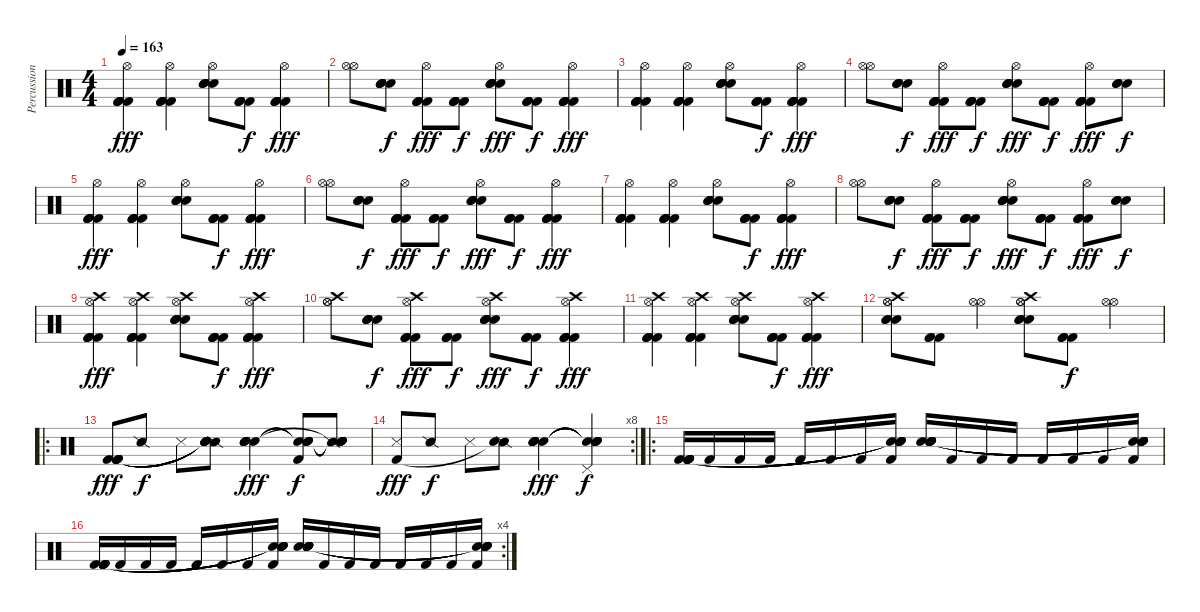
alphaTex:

\track ("Percussion" "Percussion") {instrument percussion}
\staff {score}
\articulation defaults
\ts (4 4)
\tempo 163
\clef neutral
\ks c
("Kick (hit) 2" "Hi-Hat (open)" "Kick (hit) 2" "Kick (hit) 2" "Kick (hit) 2").4{dy fff volume 16} ("Kick (hit) 2" "Hi-Hat (open)" "Kick (hit) 2" "Kick (hit) 2" "Kick (hit) 2").4 ("Electric Snare (hit)" "Hi-Hat (open)" "Electric Snare (hit)" "Electric Snare (hit)" "Electric Snare (hit)").8 ("Kick (hit) 2" "Kick (hit) 2" "Kick (hit) 2" "Kick (hit) 2").8{dy f} ("Kick (hit) 2" "Hi-Hat (open)" "Kick (hit) 2" "Kick (hit) 2" "Kick (hit) 2").4{dy fff} |
("Hi-Hat (open)" "Hi-Hat (open)").8 ("Electric Snare (hit)" "Electric Snare (hit)" "Electric Snare (hit)" "Electric Snare (hit)").8{dy f} ("Kick (hit) 2" "Hi-Hat (open)" "Kick (hit) 2" "Kick (hit) 2" "Kick (hit) 2").8{dy fff} ("Kick (hit) 2" "Kick (hit) 2" "Kick (hit) 2" "Kick (hit) 2").8{dy f} ("Electric Snare (hit)" "Hi-Hat (open)" "Electric Snare (hit)" "Electric Snare (hit)" "Electric Snare (hit)").8{dy fff} ("Kick (hit) 2" "Kick (hit) 2" "Kick (hit) 2" "Kick (hit) 2").8{dy f} ("Kick (hit) 2" "Hi-Hat (open)" "Kick (hit) 2" "Kick (hit) 2" "Kick (hit) 2").4{dy fff} |
("Kick (hit) 2" "Hi-Hat (open)" "Kick (hit) 2" "Kick (hit) 2" "Kick (hit) 2").4 ("Kick (hit) 2" "Hi-Hat (open)" "Kick (hit) 2" "Kick (hit) 2" "Kick (hit) 2").4 ("Electric Snare (hit)" "Hi-Hat (open)" "Electric Snare (hit)" "Electric Snare (hit)" "Electric Snare (hit)").8 ("Kick (hit) 2" "Kick (hit) 2" "Kick (hit) 2" "Kick (hit) 2").8{dy f} ("Kick (hit) 2" "Hi-Hat (open)" "Kick (hit) 2" "Kick (hit) 2" "Kick (hit) 2").4{dy fff} |
("Hi-Hat (open)" "Hi-Hat (open)").8 ("Electric Snare (hit)" "Electric Snare (hit)" "Electric Snare (hit)" "Electric Snare (hit)").8{dy f} ("Kick (hit) 2" "Hi-Hat (open)" "Kick (hit) 2" "Kick (hit) 2" "Kick (hit) 2").8{dy fff} ("Kick (hit) 2" "Kick (hit) 2" "Kick (hit) 2" "Kick (hit) 2").8{dy f} ("Electric Snare (hit)" "Hi-Hat (open)" "Electric Snare (hit)" "Electric Snare (hit)" "Electric Snare (hit)").8{dy fff} ("Kick (hit) 2" "Kick (hit) 2" "Kick (hit) 2" "Kick (hit) 2").8{dy f} ("Kick (hit) 2" "Hi-Hat (open)" "Kick (hit) 2" "Kick (hit) 2" "Kick (hit) 2").8{dy fff} ("Electric Snare (hit)" "Electric Snare (hit)" "Electric Snare (hit)").8{dy f} |
("Kick (hit) 2" "Hi-Hat (open)" "Kick (hit) 2" "Kick (hit) 2" "Kick (hit) 2").4{dy fff volume 16} ("Kick (hit) 2" "Hi-Hat (open)" "Kick (hit) 2" "Kick (hit) 2" "Kick (hit) 2").4 ("Electric Snare (hit)" "Hi-Hat (open)" "Electric Snare (hit)" "Electric Snare (hit)" "Electric Snare (hit)").8 ("Kick (hit) 2" "Kick (hit) 2" "Kick (hit) 2" "Kick (hit) 2").8{dy f} ("Kick (hit) 2" "Hi-Hat (open)" "Kick (hit) 2" "Kick (hit) 2" "Kick (hit) 2").4{dy fff} |
("Hi-Hat (open)" "Hi-Hat (open)").8 ("Electric Snare (hit)" "Electric Snare (hit)" "Electric Snare (hit)" "Electric Snare (hit)").8{dy f} ("Kick (hit) 2" "Hi-Hat (open)" "Kick (hit) 2" "Kick (hit) 2" "Kick (hit) 2").8{dy fff} ("Kick (hit) 2" "Kick (hit) 2" "Kick (hit) 2" "Kick (hit) 2").8{dy f} ("Electric Snare (hit)" "Hi-Hat (open)" "Electric Snare (hit)" "Electric Snare (hit)" "Electric Snare (hit)").8{dy fff} ("Kick (hit) 2" "Kick (hit) 2" "Kick (hit) 2" "Kick (hit) 2").8{dy f} ("Kick (hit) 2" "Hi-Hat (open)" "Kick (hit) 2" "Kick (hit) 2" "Kick (hit) 2").4{dy fff} |
("Kick (hit) 2" "Hi-Hat (open)" "Kick (hit) 2" "Kick (hit) 2" "Kick (hit) 2").4 ("Kick (hit) 2" "Hi-Hat (open)" "Kick (hit) 2" "Kick (hit) 2" "Kick (hit) 2").4 ("Electric Snare (hit)" "Hi-Hat (open)" "Electric Snare (hit)" "Electric Snare (hit)" "Electric Snare (hit)").8 ("Kick (hit) 2" "Kick (hit) 2" "Kick (hit) 2" "Kick (hit) 2").8{dy f} ("Kick (hit) 2" "Hi-Hat (open)" "Kick (hit) 2" "Kick (hit) 2" "Kick (hit) 2").4{dy fff} |
("Hi-Hat (open)" "Hi-Hat (open)").8 ("Electric Snare (hit)" "Electric Snare (hit)" "Electric Snare (hit)" "Electric Snare (hit)").8{dy f} ("Kick (hit) 2" "Hi-Hat (open)" "Kick (hit) 2" "Kick (hit) 2" "Kick (hit) 2").8{dy fff} ("Kick (hit) 2" "Kick (hit) 2" "Kick (hit) 2" "Kick (hit) 2").8{dy f} ("Electric Snare (hit)" "Hi-Hat (open)" "Electric Snare (hit)" "Electric Snare (hit)" "Electric Snare (hit)").8{dy fff} ("Kick (hit) 2" "Kick (hit) 2" "Kick (hit) 2" "Kick (hit) 2").8{dy f} ("Kick (hit) 2" "Hi-Hat (open)" "Kick (hit) 2" "Kick (hit) 2" "Kick (hit) 2").8{dy fff} ("Electric Snare (hit)" "Electric Snare (hit)" "Electric Snare (hit)").8{dy f} |
("Kick (hit) 2" "Hi-Hat (open)" "Kick (hit) 2" "Kick (hit) 2" "Kick (hit) 2" "Crash high (hit)").4{dy fff volume 16} ("Kick (hit) 2" "Hi-Hat (open)" "Kick (hit) 2" "Kick (hit) 2" "Kick (hit) 2" "Crash high (hit)").4 ("Electric Snare (hit)" "Hi-Hat (open)" "Electric Snare (hit)" "Electric Snare (hit)" "Electric Snare (hit)" "Crash high (hit)").8 ("Kick (hit) 2" "Kick (hit) 2" "Kick (hit) 2" "Kick (hit) 2").8{dy f} ("Kick (hit) 2" "Hi-Hat (open)" "Kick (hit) 2" "Kick (hit) 2" "Kick (hit) 2" "Crash high (hit)").4{dy fff} |
("Hi-Hat (open)" "Hi-Hat (open)" "Crash high (hit)").8 ("Electric Snare (hit)" "Electric Snare (hit)" "Electric Snare (hit)" "Electric Snare (hit)").8{dy f} ("Kick (hit) 2" "Hi-Hat (open)" "Kick (hit) 2" "Kick (hit) 2" "Kick (hit) 2" "Crash high (hit)").8{dy fff} ("Kick (hit) 2" "Kick (hit) 2" "Kick (hit) 2" "Kick (hit) 2").8{dy f} ("Electric Snare (hit)" "Hi-Hat (open)" "Electric Snare (hit)" "Electric Snare (hit)" "Electric Snare (hit)" "Crash high (hit)").8{dy fff} ("Kick (hit) 2" "Kick (hit) 2" "Kick (hit) 2" "Kick (hit) 2").8{dy f} ("Kick (hit) 2" "Hi-Hat (open)" "Kick (hit) 2" "Kick (hit) 2" "Kick (hit) 2" "Crash high (hit)").4{dy fff} |
("Kick (hit) 2" "Hi-Hat (open)" "Kick (hit) 2" "Kick (hit) 2" "Kick (hit) 2" "Crash high (hit)").4{volume 16} ("Kick (hit) 2" "Hi-Hat (open)" "Kick (hit) 2" "Kick (hit) 2" "Kick (hit) 2" "Crash high (hit)").4 ("Electric Snare (hit)" "Hi-Hat (open)" "Electric Snare (hit)" "Electric Snare (hit)" "Electric Snare (hit)" "Crash high (hit)").8 ("Kick (hit) 2" "Kick (hit) 2" "Kick (hit) 2" "Kick (hit) 2").8{dy f} ("Kick (hit) 2" "Hi-Hat (open)" "Kick (hit) 2" "Kick (hit) 2" "Kick (hit) 2" "Crash high (hit)").4{dy fff} |
("Hi-Hat (open)" "Hi-Hat (open)" "Electric Snare (hit)" "Electric Snare (hit)" "Electric Snare (hit)" "Crash high (hit)").8 ("Kick (hit) 2" "Kick (hit) 2" "Kick (hit) 2").8 ("Hi-Hat (open)" "Hi-Hat (open)").4 ("Hi-Hat (open)" "Hi-Hat (open)" "Electric Snare (hit)" "Electric Snare (hit)" "Electric Snare (hit)" "Crash high (hit)").8 ("Kick (hit) 2" "Kick (hit) 2" "Kick (hit) 2").8{dy f} ("Hi-Hat (open)" "Hi-Hat (open)").4 |
\ro
("Kick (hit) 2" "Kick (hit) 2" "Kick (hit) 2" "Kick (hit) 2" "Kick (hit) 2" "Kick (hit) 2").8{dy fff} "Snare (side stick) 2".8{dy f} "Metronome (hit)".8 ("Snare (side stick) 2" "Snare (hit)"{t} "Snare (hit)"{t} "Snare (hit)"{t} "Snare (hit)"{t} "Snare (hit)"{t}).8 ("Snare (hit) 2" "Hand Clap (hit)" "Snare (hit) 2" "Hand Clap (hit)" "Snare (hit) 2" "Snare (hit) 2").4{dy fff} ("Kick (hit) 2" "Hand Clap (hit)"{t} "Hand Clap (hit)"{t} "Hand Clap (hit)"{t} "Snare (hit)"{t}).8{dy f} ("Snare (side stick) 2" "Snare (hit)"{t} "Snare (hit)"{t} "Snare (hit)"{t} "Snare (hit)"{t} "Snare (hit)"{t}).8 |
\rc 8
("Metronome (hit)" "Kick (hit) 2").8{dy fff} "Snare (side stick) 2".8{dy f} "Metronome (hit)".8 ("Snare (side stick) 2" "Snare (hit)"{t}).8 ("Snare (hit) 2" "Hand Clap (hit)" "Snare (hit) 2" "Hand Clap (hit)" "Snare (hit) 2" "Hand Clap (hit)").4{dy fff} ("Pedal Hi-Hat (hit)" "Snare (hit)"{t} "Snare (hit)"{t} "Snare (hit)"{t} "Snare (hit)"{t} "Snare (hit)"{t}).4{dy f} |
\ro
("Kick (hit) 2" "Kick (hit) 2" "Kick (hit) 2" "Kick (hit) 2" "Kick (hit) 2" "Kick (hit) 2").16 "Kick (hit) 2".16 "Kick (hit) 2".16 "Kick (hit) 2".16 "Kick (hit) 2".16 "Kick (hit) 2".16 "Kick (hit) 2".16 ("Kick (hit) 2" "Snare (hit)"{t} "Snare (hit)"{t} "Snare (hit)"{t} "Snare (hit)"{t} "Snare (hit)"{t}).16 ("Snare (hit) 2" "Snare (hit) 2" "Snare (hit) 2" "Snare (hit) 2" "Snare (hit) 2" "Snare (hit) 2").16 "Kick (hit) 2".16 "Kick (hit) 2".16 "Kick (hit) 2".16 "Kick (hit) 2".16 "Kick (hit) 2".16 "Kick (hit) 2".16 ("Kick (hit) 2" "Snare (hit)"{t} "Snare (hit)"{t} "Snare (hit)"{t} "Snare (hit)"{t} "Snare (hit)"{t}).16 |
\rc 4
("Kick (hit) 2" "Kick (hit) 2" "Kick (hit) 2" "Kick (hit) 2" "Kick (hit) 2" "Kick (hit) 2").16 "Kick (hit) 2".16 "Kick (hit) 2".16 "Kick (hit) 2".16 "Kick (hit) 2".16 "Kick (hit) 2".16 "Kick (hit) 2".16 ("Kick (hit) 2" "Snare (hit)"{t} "Snare (hit)"{t} "Snare (hit)"{t} "Snare (hit)"{t} "Snare (hit)"{t}).16 ("Snare (hit) 2" "Snare (hit) 2" "Snare (hit) 2" "Snare (hit) 2" "Snare (hit) 2" "Snare (hit) 2").16 "Kick (hit) 2".16 "Kick (hit) 2".16 "Kick (hit) 2".16 "Kick (hit) 2".16 "Kick (hit) 2".16 "Kick (hit) 2".16 ("Kick (hit) 2" "Snare (hit)"{t} "Snare (hit)"{t} "Snare (hit)"{t} "Snare (hit)"{t} "Snare (hit)"{t}).16
